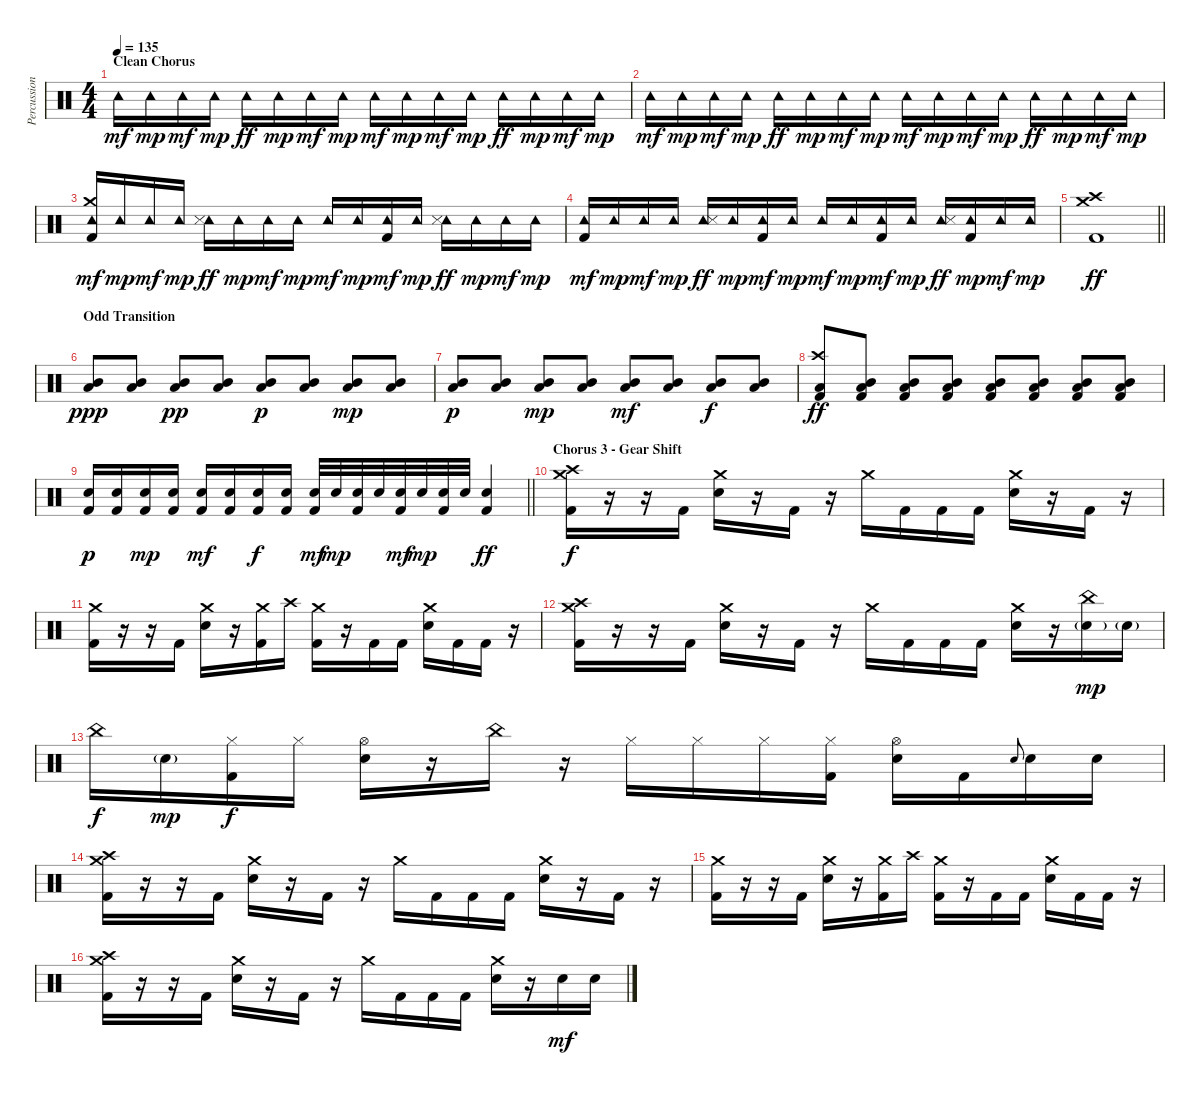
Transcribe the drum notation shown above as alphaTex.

\track ("Percussion" "Percussion") {instrument percussion}
\staff {score}
\articulation defaults
\ts (4 4)
\section ("" "Clean Chorus")
\tempo 135
\clef neutral
\ks c "Tambourine (hit)".16{dy mf} "Tambourine (hit)".16{dy mp} "Tambourine (hit)".16{dy mf} "Tambourine (hit)".16{dy mp} "Tambourine (hit)".16{dy ff} "Tambourine (hit)".16{dy mp} "Tambourine (hit)".16{dy mf} "Tambourine (hit)".16{dy mp} "Tambourine (hit)".16{dy mf} "Tambourine (hit)".16{dy mp} "Tambourine (hit)".16{dy mf} "Tambourine (hit)".16{dy mp} "Tambourine (hit)".16{dy ff} "Tambourine (hit)".16{dy mp} "Tambourine (hit)".16{dy mf} "Tambourine (hit)".16{dy mp}
|
"Tambourine (hit)".16{dy mf} "Tambourine (hit)".16{dy mp} "Tambourine (hit)".16{dy mf} "Tambourine (hit)".16{dy mp} "Tambourine (hit)".16{dy ff} "Tambourine (hit)".16{dy mp} "Tambourine (hit)".16{dy mf} "Tambourine (hit)".16{dy mp} "Tambourine (hit)".16{dy mf} "Tambourine (hit)".16{dy mp} "Tambourine (hit)".16{dy mf} "Tambourine (hit)".16{dy mp} "Tambourine (hit)".16{dy ff} "Tambourine (hit)".16{dy mp} "Tambourine (hit)".16{dy mf} "Tambourine (hit)".16{dy mp} |
("Crash medium (hit)" "Tambourine (hit)" "Kick (hit) 2").16{dy mf} "Tambourine (hit)".16{dy mp} "Tambourine (hit)".16{dy mf} "Tambourine (hit)".16{dy mp} ("Tambourine (hit)" "Snare (side stick) 3").16{dy ff} "Tambourine (hit)".16{dy mp} "Tambourine (hit)".16{dy mf} "Tambourine (hit)".16{dy mp} "Tambourine (hit)".16{dy mf} "Tambourine (hit)".16{dy mp} ("Tambourine (hit)" "Kick (hit) 2").16{dy mf} "Tambourine (hit)".16{dy mp} ("Tambourine (hit)" "Snare (side stick) 3").16{dy ff} "Tambourine (hit)".16{dy mp} "Tambourine (hit)".16{dy mf} "Tambourine (hit)".16{dy mp} |
("Tambourine (hit)" "Kick (hit) 2").16{dy mf} "Tambourine (hit)".16{dy mp} "Tambourine (hit)".16{dy mf} "Tambourine (hit)".16{dy mp} ("Tambourine (hit)" "Snare (side stick) 3").16{dy ff} "Tambourine (hit)".16{dy mp} ("Tambourine (hit)" "Kick (hit) 2").16{dy mf} "Tambourine (hit)".16{dy mp} "Tambourine (hit)".16{dy mf} "Tambourine (hit)".16{dy mp} ("Tambourine (hit)" "Kick (hit) 2").16{dy mf} "Tambourine (hit)".16{dy mp} ("Tambourine (hit)" "Snare (side stick) 3").16{dy ff} ("Tambourine (hit)" "Kick (hit) 2").16{dy mp} "Tambourine (hit)".16{dy mf} "Tambourine (hit)".16{dy mp} |
\barLineRight lightlight
("Crash medium (hit)" "Crash high (hit)" "Kick (hit) 2").1{dy ff} |
\section ("" "Odd Transition")
("Mid Tom (hit)" "Low Tom (hit)").8{dy ppp} ("Mid Tom (hit)" "Low Tom (hit)").8 ("Mid Tom (hit)" "Low Tom (hit)").8{dy pp} ("Mid Tom (hit)" "Low Tom (hit)").8 ("Mid Tom (hit)" "Low Tom (hit)").8{dy p} ("Mid Tom (hit)" "Low Tom (hit)").8 ("Mid Tom (hit)" "Low Tom (hit)").8{dy mp} ("Mid Tom (hit)" "Low Tom (hit)").8 |
("Mid Tom (hit)" "Low Tom (hit)").8{dy p} ("Mid Tom (hit)" "Low Tom (hit)").8 ("Mid Tom (hit)" "Low Tom (hit)").8{dy mp} ("Mid Tom (hit)" "Low Tom (hit)").8 ("Mid Tom (hit)" "Low Tom (hit)").8{dy mf} ("Mid Tom (hit)" "Low Tom (hit)").8 ("Mid Tom (hit)" "Low Tom (hit)").8{dy f} ("Mid Tom (hit)" "Low Tom (hit)").8 |
("Crash high (hit)" "Low Tom (hit)" "Kick (hit) 2").8{dy ff} ("Mid Tom (hit)" "Low Tom (hit)" "Kick (hit) 2").8 ("Mid Tom (hit)" "Low Tom (hit)" "Kick (hit) 2").8 ("Mid Tom (hit)" "Low Tom (hit)" "Kick (hit) 2").8 ("Mid Tom (hit)" "Low Tom (hit)" "Kick (hit) 2").8 ("Mid Tom (hit)" "Low Tom (hit)" "Kick (hit) 2").8 ("Mid Tom (hit)" "Low Tom (hit)" "Kick (hit) 2").8 ("Mid Tom (hit)" "Low Tom (hit)" "Kick (hit) 2").8 |
\barLineRight lightlight
("Electric Snare (hit)" "Kick (hit) 2").16{dy p} ("Electric Snare (hit)" "Kick (hit) 2").16 ("Electric Snare (hit)" "Kick (hit) 2").16{dy mp} ("Electric Snare (hit)" "Kick (hit) 2").16 ("Electric Snare (hit)" "Kick (hit) 2").16{dy mf} ("Electric Snare (hit)" "Kick (hit) 2").16 ("Electric Snare (hit)" "Kick (hit) 2").16{dy f} ("Electric Snare (hit)" "Kick (hit) 2").16 ("Electric Snare (hit)" "Kick (hit) 2").32{dy mf} "Electric Snare (hit)".32{dy mp} ("Electric Snare (hit)" "Kick (hit) 2").32 "Electric Snare (hit)".32 ("Electric Snare (hit)" "Kick (hit) 2").32{dy mf} "Electric Snare (hit)".32{dy mp} ("Electric Snare (hit)" "Kick (hit) 2").32 "Electric Snare (hit)".32 ("Electric Snare (hit)" "Kick (hit) 2").4{dy ff} |
\section ("" "Chorus 3 - Gear Shift")
("Crash medium (hit)" "Crash high (hit)" "Kick (hit) 2").16{dy f} r.16 r.16 "Kick (hit) 2".16 ("Crash medium (hit)" "Electric Snare (hit)").16 r.16 "Kick (hit) 2".16 r.16 "Crash medium (hit)".16 "Kick (hit) 2".16 "Kick (hit) 2".16 "Kick (hit) 2".16 ("Crash medium (hit)" "Electric Snare (hit)").16 r.16 "Kick (hit) 2".16 r.16 |
("Crash medium (hit)" "Kick (hit) 2").16 r.16 r.16 "Kick (hit) 2".16 ("Crash medium (hit)" "Electric Snare (hit)").16 r.16 ("Crash medium (hit)" "Kick (hit) 2").16 "Crash high (hit)".16 ("Crash medium (hit)" "Kick (hit) 2").16 r.16 "Kick (hit) 2".16 "Kick (hit) 2".16 ("Crash medium (hit)" "Electric Snare (hit)").16 "Kick (hit) 2".16 "Kick (hit) 2".16 r.16 |
("Crash medium (hit)" "Crash high (hit)" "Kick (hit) 2").16 r.16 r.16 "Kick (hit) 2".16 ("Crash medium (hit)" "Electric Snare (hit)").16 r.16 "Kick (hit) 2".16 r.16 "Crash medium (hit)".16 "Kick (hit) 2".16 "Kick (hit) 2".16 "Kick (hit) 2".16 ("Crash medium (hit)" "Electric Snare (hit)").16 r.16 ("China (hit)" "Electric Snare (hit)"{g}).16{dy mp} "Electric Snare (hit)"{g}.16 |
"China (hit)".16{dy f} "Electric Snare (hit)"{g}.16{dy mp} ("Hi-Hat (closed)" "Kick (hit) 2").16{dy f} "Hi-Hat (closed)".16 ("Hi-Hat (open)" "Electric Snare (hit)").16 r.16 "China (hit)".16 r.16 "Hi-Hat (closed)".16 "Hi-Hat (closed)".16 "Hi-Hat (closed)".16 ("Hi-Hat (closed)" "Kick (hit) 2").16 ("Hi-Hat (open)" "Electric Snare (hit)").16 "Kick (hit) 2".16 "Electric Snare (hit)".8{gr onbeat} "Electric Snare (hit)".16 "Electric Snare (hit)".16 |
("Crash medium (hit)" "Crash high (hit)" "Kick (hit) 2").16 r.16 r.16 "Kick (hit) 2".16 ("Crash medium (hit)" "Electric Snare (hit)").16 r.16 "Kick (hit) 2".16 r.16 "Crash medium (hit)".16 "Kick (hit) 2".16 "Kick (hit) 2".16 "Kick (hit) 2".16 ("Crash medium (hit)" "Electric Snare (hit)").16 r.16 "Kick (hit) 2".16 r.16 |
("Crash medium (hit)" "Kick (hit) 2").16 r.16 r.16 "Kick (hit) 2".16 ("Crash medium (hit)" "Electric Snare (hit)").16 r.16 ("Crash medium (hit)" "Kick (hit) 2").16 "Crash high (hit)".16 ("Crash medium (hit)" "Kick (hit) 2").16 r.16 "Kick (hit) 2".16 "Kick (hit) 2".16 ("Crash medium (hit)" "Electric Snare (hit)").16 "Kick (hit) 2".16 "Kick (hit) 2".16 r.16 |
("Crash medium (hit)" "Crash high (hit)" "Kick (hit) 2").16 r.16 r.16 "Kick (hit) 2".16 ("Crash medium (hit)" "Electric Snare (hit)").16 r.16 "Kick (hit) 2".16 r.16 "Crash medium (hit)".16 "Kick (hit) 2".16 "Kick (hit) 2".16 "Kick (hit) 2".16 ("Crash medium (hit)" "Electric Snare (hit)").16 r.16 "Electric Snare (hit)".16{dy mf} "Electric Snare (hit)".16
